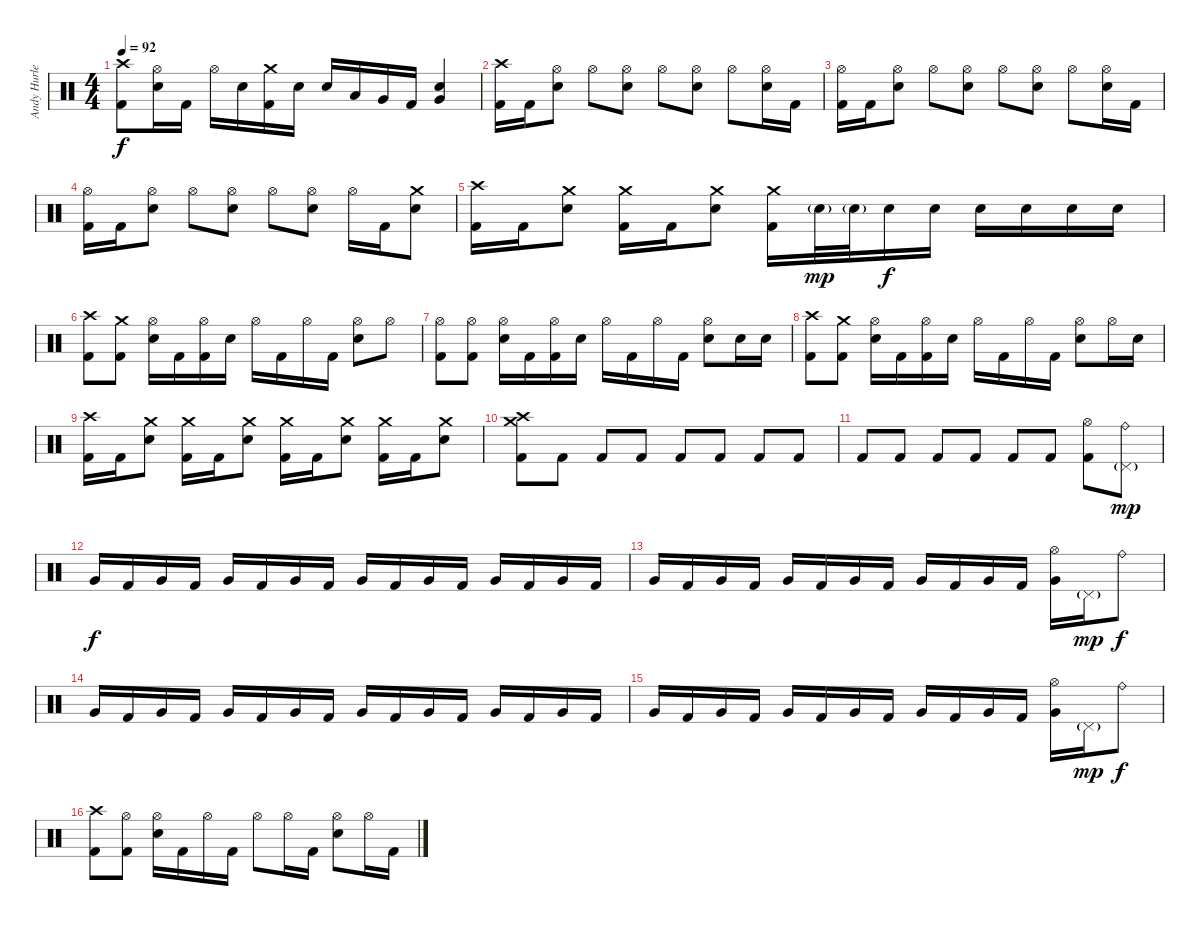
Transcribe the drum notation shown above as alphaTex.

\track ("Andy Hurley" "Andy Hurle") {instrument percussion}
\staff {score}
\articulation defaults
\ts (4 4)
\tempo 92
\clef neutral
\ks c
("Crash high (hit)" "Kick (hit) 2").8{dy f} ("Hi-Hat (open)" "Snare (hit) 2").16 "Kick (hit) 2".16 "Hi-Hat (open)".16 "Snare (hit) 2".16 ("Crash medium (hit)" "Kick (hit) 2").16 "Snare (hit) 2".16 "Snare (hit) 2".16 "Low Tom (hit)".16 "Very Low Tom (hit)".16 "Kick (hit) 2".16 ("Snare (hit) 2" "Very Low Tom (hit)").4 |
("Crash high (hit)" "Kick (hit) 2").16 "Kick (hit) 2".16 ("Hi-Hat (open)" "Snare (hit) 2").8 "Hi-Hat (open)".8 ("Hi-Hat (open)" "Snare (hit) 2").8 "Hi-Hat (open)".8 ("Hi-Hat (open)" "Snare (hit) 2").8 "Hi-Hat (open)".8 ("Hi-Hat (open)" "Snare (hit) 2").16 "Kick (hit) 2".16 |
("Hi-Hat (open)" "Kick (hit) 2").16 "Kick (hit) 2".16 ("Hi-Hat (open)" "Snare (hit) 2").8 "Hi-Hat (open)".8 ("Hi-Hat (open)" "Snare (hit) 2").8 "Hi-Hat (open)".8 ("Hi-Hat (open)" "Snare (hit) 2").8 "Hi-Hat (open)".8 ("Hi-Hat (open)" "Snare (hit) 2").16 "Kick (hit) 2".16 |
("Hi-Hat (open)" "Kick (hit) 2").16 "Kick (hit) 2".16 ("Hi-Hat (open)" "Snare (hit) 2").8 "Hi-Hat (open)".8 ("Hi-Hat (open)" "Snare (hit) 2").8 "Hi-Hat (open)".8 ("Hi-Hat (open)" "Snare (hit) 2").8 "Hi-Hat (open)".16 "Kick (hit) 2".16 ("Crash medium (hit)" "Snare (hit) 2").8 |
("Crash high (hit)" "Kick (hit) 2").16 "Kick (hit) 2".16 ("Crash medium (hit)" "Snare (hit) 2").8 ("Crash medium (hit)" "Kick (hit) 2").16 "Kick (hit) 2".16 ("Crash medium (hit)" "Snare (hit) 2").8 ("Crash medium (hit)" "Kick (hit) 2").16 "Snare (hit) 2"{g}.32{dy mp} "Snare (hit) 2"{g}.32 "Snare (hit) 2".16{dy f} "Snare (hit) 2".16 "Snare (hit) 2".16 "Snare (hit) 2".16 "Snare (hit) 2".16 "Snare (hit) 2".16 |
("Crash high (hit)" "Kick (hit) 2").8 ("Crash medium (hit)" "Kick (hit) 2").8 ("Hi-Hat (open)" "Snare (hit) 2").16 "Kick (hit) 2".16 ("Hi-Hat (open)" "Kick (hit) 2").16 "Snare (hit) 2".16 "Hi-Hat (open)".16 "Kick (hit) 2".16 "Hi-Hat (open)".16 "Kick (hit) 2".16 ("Hi-Hat (open)" "Snare (hit) 2").8 "Hi-Hat (open)".8 |
("Hi-Hat (open)" "Kick (hit) 2").8 ("Hi-Hat (open)" "Kick (hit) 2").8 ("Hi-Hat (open)" "Snare (hit) 2").16 "Kick (hit) 2".16 ("Hi-Hat (open)" "Kick (hit) 2").16 "Snare (hit) 2".16 "Hi-Hat (open)".16 "Kick (hit) 2".16 "Hi-Hat (open)".16 "Kick (hit) 2".16 ("Hi-Hat (open)" "Snare (hit) 2").8 "Snare (hit) 2".16 "Snare (hit) 2".16 |
("Crash high (hit)" "Kick (hit) 2").8 ("Crash medium (hit)" "Kick (hit) 2").8 ("Hi-Hat (open)" "Snare (hit) 2").16 "Kick (hit) 2".16 ("Hi-Hat (open)" "Kick (hit) 2").16 "Snare (hit) 2".16 "Hi-Hat (open)".16 "Kick (hit) 2".16 "Hi-Hat (open)".16 "Kick (hit) 2".16 ("Hi-Hat (open)" "Snare (hit) 2").8 "Hi-Hat (open)".16 "Snare (hit) 2".16 |
("Crash high (hit)" "Kick (hit) 2").16 "Kick (hit) 2".16 ("Crash medium (hit)" "Snare (hit) 2").8 ("Crash medium (hit)" "Kick (hit) 2").16 "Kick (hit) 2".16 ("Crash medium (hit)" "Snare (hit) 2").8 ("Crash medium (hit)" "Kick (hit) 2").16 "Kick (hit) 2".16 ("Crash medium (hit)" "Snare (hit) 2").8 ("Crash medium (hit)" "Kick (hit) 2").16 "Kick (hit) 2".16 ("Crash medium (hit)" "Snare (hit) 2").8 |
("Crash high (hit)" "Crash medium (hit)" "Kick (hit) 2").8 "Kick (hit) 2".8 "Kick (hit) 2".8 "Kick (hit) 2".8 "Kick (hit) 2".8 "Kick (hit) 2".8 "Kick (hit) 2".8 "Kick (hit) 2".8 |
"Kick (hit) 2".8 "Kick (hit) 2".8 "Kick (hit) 2".8 "Kick (hit) 2".8 "Kick (hit) 2".8 "Kick (hit) 2".8 ("Hi-Hat (open)" "Kick (hit) 2").8 ("Ride (bell)" "Pedal Hi-Hat (hit)"{g}).8{dy mp} |
"Very Low Tom (hit)".16{dy f} "Kick (hit) 2".16 "Very Low Tom (hit)".16 "Kick (hit) 2".16 "Very Low Tom (hit)".16 "Kick (hit) 2".16 "Very Low Tom (hit)".16 "Kick (hit) 2".16 "Very Low Tom (hit)".16 "Kick (hit) 2".16 "Very Low Tom (hit)".16 "Kick (hit) 2".16 "Very Low Tom (hit)".16 "Kick (hit) 2".16 "Very Low Tom (hit)".16 "Kick (hit) 2".16 |
"Very Low Tom (hit)".16 "Kick (hit) 2".16 "Very Low Tom (hit)".16 "Kick (hit) 2".16 "Very Low Tom (hit)".16 "Kick (hit) 2".16 "Very Low Tom (hit)".16 "Kick (hit) 2".16 "Very Low Tom (hit)".16 "Kick (hit) 2".16 "Very Low Tom (hit)".16 "Kick (hit) 2".16 ("Hi-Hat (open)" "Very Low Tom (hit)").16 "Pedal Hi-Hat (hit)"{g}.16{dy mp} "Ride (bell)".8{dy f} |
"Very Low Tom (hit)".16 "Kick (hit) 2".16 "Very Low Tom (hit)".16 "Kick (hit) 2".16 "Very Low Tom (hit)".16 "Kick (hit) 2".16 "Very Low Tom (hit)".16 "Kick (hit) 2".16 "Very Low Tom (hit)".16 "Kick (hit) 2".16 "Very Low Tom (hit)".16 "Kick (hit) 2".16 "Very Low Tom (hit)".16 "Kick (hit) 2".16 "Very Low Tom (hit)".16 "Kick (hit) 2".16 |
"Very Low Tom (hit)".16 "Kick (hit) 2".16 "Very Low Tom (hit)".16 "Kick (hit) 2".16 "Very Low Tom (hit)".16 "Kick (hit) 2".16 "Very Low Tom (hit)".16 "Kick (hit) 2".16 "Very Low Tom (hit)".16 "Kick (hit) 2".16 "Very Low Tom (hit)".16 "Kick (hit) 2".16 ("Hi-Hat (open)" "Very Low Tom (hit)").16 "Pedal Hi-Hat (hit)"{g}.16{dy mp} "Ride (bell)".8{dy f} |
("Crash high (hit)" "Kick (hit) 2").8 ("Hi-Hat (open)" "Kick (hit) 2").8 ("Hi-Hat (open)" "Snare (hit) 2").16 "Kick (hit) 2".16 "Hi-Hat (open)".16 "Kick (hit) 2".16 "Hi-Hat (open)".8 "Hi-Hat (open)".16 "Kick (hit) 2".16 ("Hi-Hat (open)" "Snare (hit) 2").8 "Hi-Hat (open)".16 "Kick (hit) 2".16
